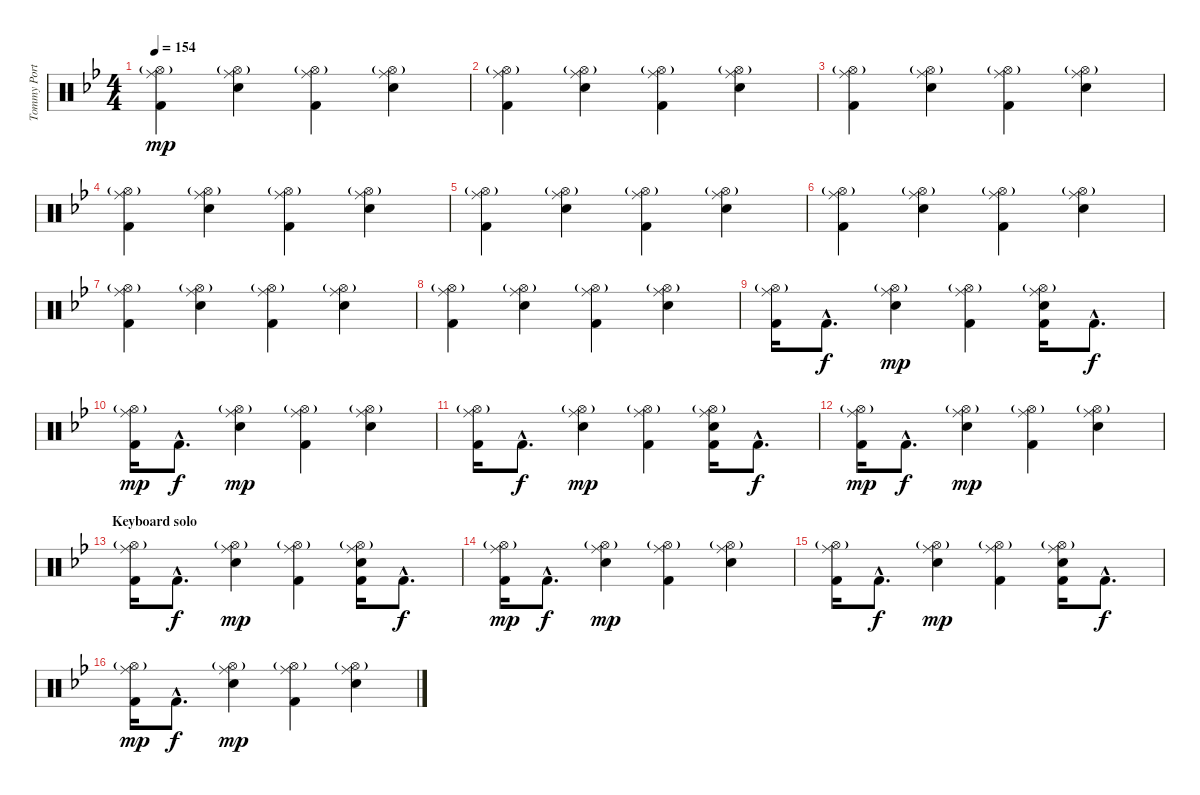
\track ("Tommy Portimo" "Tommy Port") {instrument percussion}
\staff {score}
\articulation defaults
\ts (4 4)
\tempo 154
\clef neutral
\ks gminor
("Hi-Hat (open)"{g} "Ride (middle)" "Kick (hit) 2").4{dy mp} ("Hi-Hat (open)"{g} "Ride (middle)" "Electric Snare (hit)").4 ("Hi-Hat (open)"{g} "Ride (middle)" "Kick (hit) 2").4 ("Hi-Hat (open)"{g} "Ride (middle)" "Electric Snare (hit)").4 |
("Hi-Hat (open)"{g} "Ride (middle)" "Kick (hit) 2").4 ("Hi-Hat (open)"{g} "Ride (middle)" "Electric Snare (hit)").4 ("Hi-Hat (open)"{g} "Ride (middle)" "Kick (hit) 2").4 ("Hi-Hat (open)"{g} "Ride (middle)" "Electric Snare (hit)").4 |
("Hi-Hat (open)"{g} "Ride (middle)" "Kick (hit) 2").4 ("Hi-Hat (open)"{g} "Ride (middle)" "Electric Snare (hit)").4 ("Hi-Hat (open)"{g} "Ride (middle)" "Kick (hit) 2").4 ("Hi-Hat (open)"{g} "Ride (middle)" "Electric Snare (hit)").4 |
("Hi-Hat (open)"{g} "Ride (middle)" "Kick (hit) 2").4 ("Hi-Hat (open)"{g} "Ride (middle)" "Electric Snare (hit)").4 ("Hi-Hat (open)"{g} "Ride (middle)" "Kick (hit) 2").4 ("Hi-Hat (open)"{g} "Ride (middle)" "Electric Snare (hit)").4 |
("Hi-Hat (open)"{g} "Ride (middle)" "Kick (hit) 2").4 ("Hi-Hat (open)"{g} "Ride (middle)" "Electric Snare (hit)").4 ("Hi-Hat (open)"{g} "Ride (middle)" "Kick (hit) 2").4 ("Hi-Hat (open)"{g} "Ride (middle)" "Electric Snare (hit)").4 |
("Hi-Hat (open)"{g} "Ride (middle)" "Kick (hit) 2").4 ("Hi-Hat (open)"{g} "Ride (middle)" "Electric Snare (hit)").4 ("Hi-Hat (open)"{g} "Ride (middle)" "Kick (hit) 2").4 ("Hi-Hat (open)"{g} "Ride (middle)" "Electric Snare (hit)").4 |
("Hi-Hat (open)"{g} "Ride (middle)" "Kick (hit) 2").4 ("Hi-Hat (open)"{g} "Ride (middle)" "Electric Snare (hit)").4 ("Hi-Hat (open)"{g} "Ride (middle)" "Kick (hit) 2").4 ("Hi-Hat (open)"{g} "Ride (middle)" "Electric Snare (hit)").4 |
("Hi-Hat (open)"{g} "Ride (middle)" "Kick (hit) 2").4 ("Hi-Hat (open)"{g} "Ride (middle)" "Electric Snare (hit)").4 ("Hi-Hat (open)"{g} "Ride (middle)" "Kick (hit) 2").4 ("Hi-Hat (open)"{g} "Ride (middle)" "Electric Snare (hit)").4 |
("Hi-Hat (open)"{g} "Ride (middle)" "Kick (hit) 2").16 "Kick (hit) 2"{hac}.8{d dy f} ("Hi-Hat (open)"{g} "Ride (middle)" "Electric Snare (hit)").4{dy mp} ("Hi-Hat (open)"{g} "Ride (middle)" "Kick (hit) 2").4 ("Hi-Hat (open)"{g} "Ride (middle)" "Electric Snare (hit)" "Kick (hit) 2").16 "Kick (hit) 2"{hac}.8{d dy f} |
("Hi-Hat (open)"{g} "Ride (middle)" "Kick (hit) 2").16{dy mp} "Kick (hit) 2"{hac}.8{d dy f} ("Hi-Hat (open)"{g} "Ride (middle)" "Electric Snare (hit)").4{dy mp} ("Hi-Hat (open)"{g} "Ride (middle)" "Kick (hit) 2").4 ("Hi-Hat (open)"{g} "Ride (middle)" "Electric Snare (hit)").4 |
("Hi-Hat (open)"{g} "Ride (middle)" "Kick (hit) 2").16 "Kick (hit) 2"{hac}.8{d dy f} ("Hi-Hat (open)"{g} "Ride (middle)" "Electric Snare (hit)").4{dy mp} ("Hi-Hat (open)"{g} "Ride (middle)" "Kick (hit) 2").4 ("Hi-Hat (open)"{g} "Ride (middle)" "Electric Snare (hit)" "Kick (hit) 2").16 "Kick (hit) 2"{hac}.8{d dy f} |
("Hi-Hat (open)"{g} "Ride (middle)" "Kick (hit) 2").16{dy mp} "Kick (hit) 2"{hac}.8{d dy f} ("Hi-Hat (open)"{g} "Ride (middle)" "Electric Snare (hit)").4{dy mp} ("Hi-Hat (open)"{g} "Ride (middle)" "Kick (hit) 2").4 ("Hi-Hat (open)"{g} "Ride (middle)" "Electric Snare (hit)").4 |
\section ("" "Keyboard solo")
("Hi-Hat (open)"{g} "Ride (middle)" "Kick (hit) 2").16 "Kick (hit) 2"{hac}.8{d dy f} ("Hi-Hat (open)"{g} "Ride (middle)" "Electric Snare (hit)").4{dy mp} ("Hi-Hat (open)"{g} "Ride (middle)" "Kick (hit) 2").4 ("Hi-Hat (open)"{g} "Ride (middle)" "Electric Snare (hit)" "Kick (hit) 2").16 "Kick (hit) 2"{hac}.8{d dy f} |
("Hi-Hat (open)"{g} "Ride (middle)" "Kick (hit) 2").16{dy mp} "Kick (hit) 2"{hac}.8{d dy f} ("Hi-Hat (open)"{g} "Ride (middle)" "Electric Snare (hit)").4{dy mp} ("Hi-Hat (open)"{g} "Ride (middle)" "Kick (hit) 2").4 ("Hi-Hat (open)"{g} "Ride (middle)" "Electric Snare (hit)").4 |
("Hi-Hat (open)"{g} "Ride (middle)" "Kick (hit) 2").16 "Kick (hit) 2"{hac}.8{d dy f} ("Hi-Hat (open)"{g} "Ride (middle)" "Electric Snare (hit)").4{dy mp} ("Hi-Hat (open)"{g} "Ride (middle)" "Kick (hit) 2").4 ("Hi-Hat (open)"{g} "Ride (middle)" "Electric Snare (hit)" "Kick (hit) 2").16 "Kick (hit) 2"{hac}.8{d dy f} |
("Hi-Hat (open)"{g} "Ride (middle)" "Kick (hit) 2").16{dy mp} "Kick (hit) 2"{hac}.8{d dy f} ("Hi-Hat (open)"{g} "Ride (middle)" "Electric Snare (hit)").4{dy mp} ("Hi-Hat (open)"{g} "Ride (middle)" "Kick (hit) 2").4 ("Hi-Hat (open)"{g} "Ride (middle)" "Electric Snare (hit)").4
